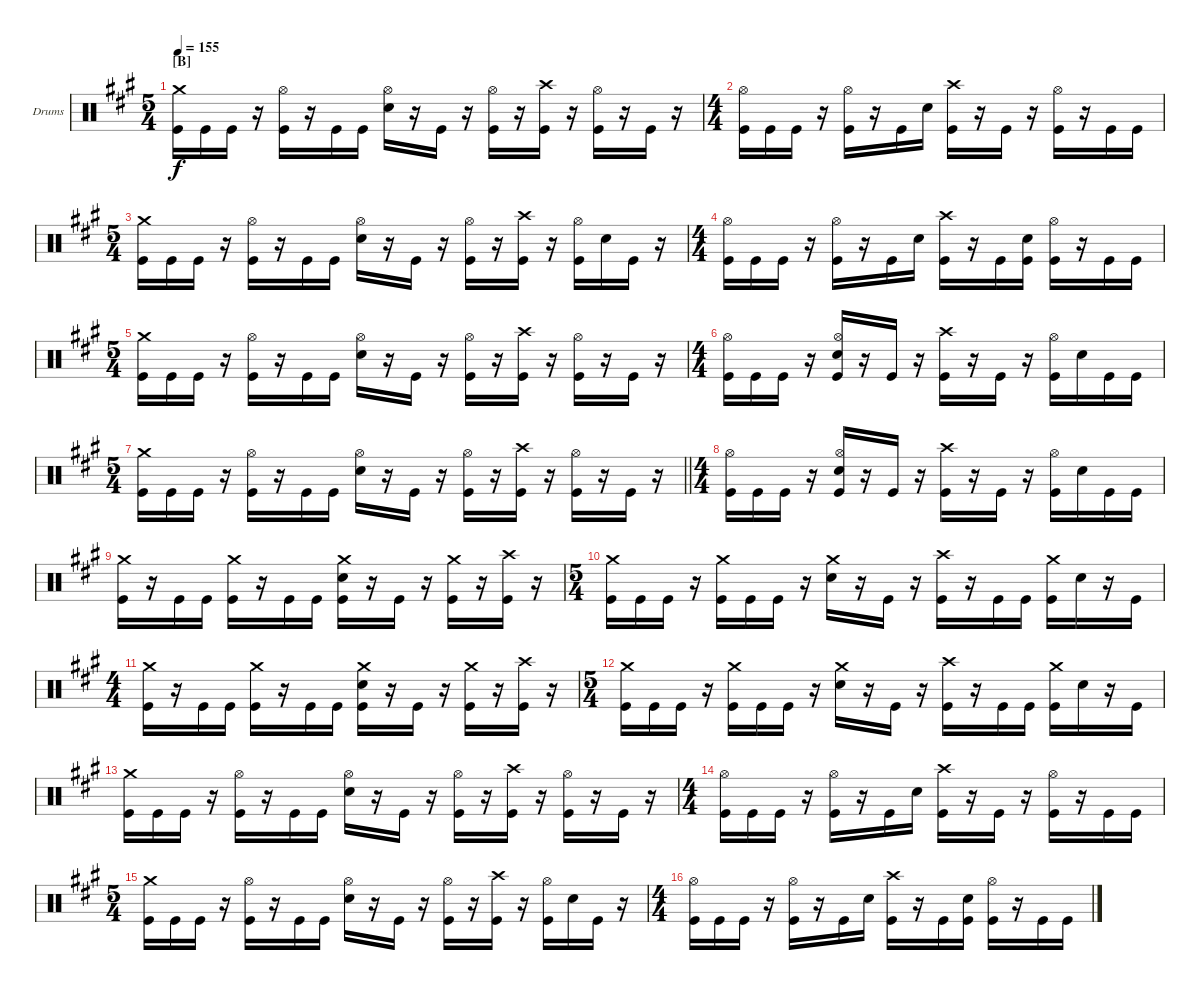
\bracketExtendMode groupsimilarinstruments
\firstSystemTrackNameOrientation horizontal
\otherSystemsTrackNameOrientation horizontal
\track ("Drumkit" "Drums") {instrument percussion}
\staff {score}
\articulation defaults
\ts (5 4)
\section ("B" "")
\tempo 155
\clef neutral
\ks a
("Crash medium (hit)" "Kick (hit)").16{dy f} "Kick (hit)".16 "Kick (hit)".16 r.16 ("Hi-Hat (open)" "Kick (hit)").16 r.16 "Kick (hit)".16 "Kick (hit)".16 ("Hi-Hat (open)" "Snare (hit) 2").16 r.16 "Kick (hit)".16 r.16 ("Hi-Hat (open)" "Kick (hit)").16 r.16 ("Crash high (hit)" "Kick (hit)").16 r.16 ("Hi-Hat (open)" "Kick (hit)").16 r.16 "Kick (hit)".16 r.16 |
\ts (4 4)
\beaming (8 2 2 2 2 2)
("Hi-Hat (open)" "Kick (hit)").16 "Kick (hit)".16 "Kick (hit)".16 r.16 ("Hi-Hat (open)" "Kick (hit)").16 r.16 "Kick (hit)".16 "Snare (hit) 2".16 ("Crash high (hit)" "Kick (hit)").16 r.16 "Kick (hit)".16 r.16 ("Hi-Hat (open)" "Kick (hit)").16 r.16 "Kick (hit)".16 "Kick (hit)".16 |
\ts (5 4)
\beaming (8 2 2 2 2 2)
("Crash medium (hit)" "Kick (hit)").16 "Kick (hit)".16 "Kick (hit)".16 r.16 ("Hi-Hat (open)" "Kick (hit)").16 r.16 "Kick (hit)".16 "Kick (hit)".16 ("Hi-Hat (open)" "Snare (hit) 2").16 r.16 "Kick (hit)".16 r.16 ("Hi-Hat (open)" "Kick (hit)").16 r.16 ("Crash high (hit)" "Kick (hit)").16 r.16 ("Hi-Hat (open)" "Kick (hit)").16 "Snare (hit) 2".16 "Kick (hit)".16 r.16 |
\ts (4 4)
\beaming (8 2 2 2 2 2)
("Hi-Hat (open)" "Kick (hit)").16 "Kick (hit)".16 "Kick (hit)".16 r.16 ("Hi-Hat (open)" "Kick (hit)").16 r.16 "Kick (hit)".16 "Snare (hit) 2".16 ("Crash high (hit)" "Kick (hit)").16 r.16 "Kick (hit)".16 ("Snare (hit) 2" "Kick (hit)").16 ("Hi-Hat (open)" "Kick (hit)").16 r.16 "Kick (hit)".16 "Kick (hit)".16 |
\ts (5 4)
\beaming (8 2 2 2 2 2)
("Crash medium (hit)" "Kick (hit)").16 "Kick (hit)".16 "Kick (hit)".16 r.16 ("Hi-Hat (open)" "Kick (hit)").16 r.16 "Kick (hit)".16 "Kick (hit)".16 ("Hi-Hat (open)" "Snare (hit) 2").16 r.16 "Kick (hit)".16 r.16 ("Hi-Hat (open)" "Kick (hit)").16 r.16 ("Crash high (hit)" "Kick (hit)").16 r.16 ("Hi-Hat (open)" "Kick (hit)").16 r.16 "Kick (hit)".16 r.16 |
\ts (4 4)
\beaming (8 2 2 2 2 2)
("Hi-Hat (open)" "Kick (hit)").16 "Kick (hit)".16 "Kick (hit)".16 r.16 ("Hi-Hat (open)" "Snare (hit) 2" "Kick (hit)").16 r.16 "Kick (hit)".16 r.16 ("Crash high (hit)" "Kick (hit)").16 r.16 "Kick (hit)".16 r.16 ("Hi-Hat (open)" "Kick (hit)").16 "Snare (hit) 2".16 "Kick (hit)".16 "Kick (hit)".16 |
\ts (5 4)
\beaming (8 2 2 2 2 2)
\barLineRight lightlight
("Crash medium (hit)" "Kick (hit)").16 "Kick (hit)".16 "Kick (hit)".16 r.16 ("Hi-Hat (open)" "Kick (hit)").16 r.16 "Kick (hit)".16 "Kick (hit)".16 ("Hi-Hat (open)" "Snare (hit) 2").16 r.16 "Kick (hit)".16 r.16 ("Hi-Hat (open)" "Kick (hit)").16 r.16 ("Crash high (hit)" "Kick (hit)").16 r.16 ("Hi-Hat (open)" "Kick (hit)").16 r.16 "Kick (hit)".16 r.16 |
\ts (4 4)
\beaming (8 2 2 2 2 2)
("Hi-Hat (open)" "Kick (hit)").16 "Kick (hit)".16 "Kick (hit)".16 r.16 ("Hi-Hat (open)" "Snare (hit) 2" "Kick (hit)").16 r.16 "Kick (hit)".16 r.16 ("Crash high (hit)" "Kick (hit)").16 r.16 "Kick (hit)".16 r.16 ("Hi-Hat (open)" "Kick (hit)").16 "Snare (hit) 2".16 "Kick (hit)".16 "Kick (hit)".16 |
("Crash medium (hit)" "Kick (hit)").16 r.16 "Kick (hit)".16 "Kick (hit)".16 ("Crash medium (hit)" "Kick (hit)").16 r.16 "Kick (hit)".16 "Kick (hit)".16 ("Crash medium (hit)" "Snare (hit) 2" "Kick (hit)").16 r.16 "Kick (hit)".16 r.16 ("Crash medium (hit)" "Kick (hit)").16 r.16 ("Crash high (hit)" "Kick (hit)").16 r.16 |
\ts (5 4)
\beaming (8 2 2 2 2 2)
("Crash medium (hit)" "Kick (hit)").16 "Kick (hit)".16 "Kick (hit)".16 r.16 ("Crash medium (hit)" "Kick (hit)").16 "Kick (hit)".16 "Kick (hit)".16 r.16 ("Crash medium (hit)" "Snare (hit) 2").16 r.16 "Kick (hit)".16 r.16 ("Crash high (hit)" "Kick (hit)").16 r.16 "Kick (hit)".16 "Kick (hit)".16 ("Crash medium (hit)" "Kick (hit)").16 "Snare (hit) 2".16 r.16 "Kick (hit)".16 |
\ts (4 4)
\beaming (8 2 2 2 2 2)
("Crash medium (hit)" "Kick (hit)").16 r.16 "Kick (hit)".16 "Kick (hit)".16 ("Crash medium (hit)" "Kick (hit)").16 r.16 "Kick (hit)".16 "Kick (hit)".16 ("Crash medium (hit)" "Snare (hit) 2" "Kick (hit)").16 r.16 "Kick (hit)".16 r.16 ("Crash medium (hit)" "Kick (hit)").16 r.16 ("Crash high (hit)" "Kick (hit)").16 r.16 |
\ts (5 4)
\beaming (8 2 2 2 2 2)
("Crash medium (hit)" "Kick (hit)").16 "Kick (hit)".16 "Kick (hit)".16 r.16 ("Crash medium (hit)" "Kick (hit)").16 "Kick (hit)".16 "Kick (hit)".16 r.16 ("Crash medium (hit)" "Snare (hit) 2").16 r.16 "Kick (hit)".16 r.16 ("Crash high (hit)" "Kick (hit)").16 r.16 "Kick (hit)".16 "Kick (hit)".16 ("Crash medium (hit)" "Kick (hit)").16 "Snare (hit) 2".16 r.16 "Kick (hit)".16 |
("Crash medium (hit)" "Kick (hit)").16 "Kick (hit)".16 "Kick (hit)".16 r.16 ("Hi-Hat (open)" "Kick (hit)").16 r.16 "Kick (hit)".16 "Kick (hit)".16 ("Hi-Hat (open)" "Snare (hit) 2").16 r.16 "Kick (hit)".16 r.16 ("Hi-Hat (open)" "Kick (hit)").16 r.16 ("Crash high (hit)" "Kick (hit)").16 r.16 ("Hi-Hat (open)" "Kick (hit)").16 r.16 "Kick (hit)".16 r.16 |
\ts (4 4)
\beaming (8 2 2 2 2 2)
("Hi-Hat (open)" "Kick (hit)").16 "Kick (hit)".16 "Kick (hit)".16 r.16 ("Hi-Hat (open)" "Kick (hit)").16 r.16 "Kick (hit)".16 "Snare (hit) 2".16 ("Crash high (hit)" "Kick (hit)").16 r.16 "Kick (hit)".16 r.16 ("Hi-Hat (open)" "Kick (hit)").16 r.16 "Kick (hit)".16 "Kick (hit)".16 |
\ts (5 4)
\beaming (8 2 2 2 2 2)
("Crash medium (hit)" "Kick (hit)").16 "Kick (hit)".16 "Kick (hit)".16 r.16 ("Hi-Hat (open)" "Kick (hit)").16 r.16 "Kick (hit)".16 "Kick (hit)".16 ("Hi-Hat (open)" "Snare (hit) 2").16 r.16 "Kick (hit)".16 r.16 ("Hi-Hat (open)" "Kick (hit)").16 r.16 ("Crash high (hit)" "Kick (hit)").16 r.16 ("Hi-Hat (open)" "Kick (hit)").16 "Snare (hit) 2".16 "Kick (hit)".16 r.16 |
\ts (4 4)
\beaming (8 2 2 2 2 2)
("Hi-Hat (open)" "Kick (hit)").16 "Kick (hit)".16 "Kick (hit)".16 r.16 ("Hi-Hat (open)" "Kick (hit)").16 r.16 "Kick (hit)".16 "Snare (hit) 2".16 ("Crash high (hit)" "Kick (hit)").16 r.16 "Kick (hit)".16 ("Snare (hit) 2" "Kick (hit)").16 ("Hi-Hat (open)" "Kick (hit)").16 r.16 "Kick (hit)".16 "Kick (hit)".16
